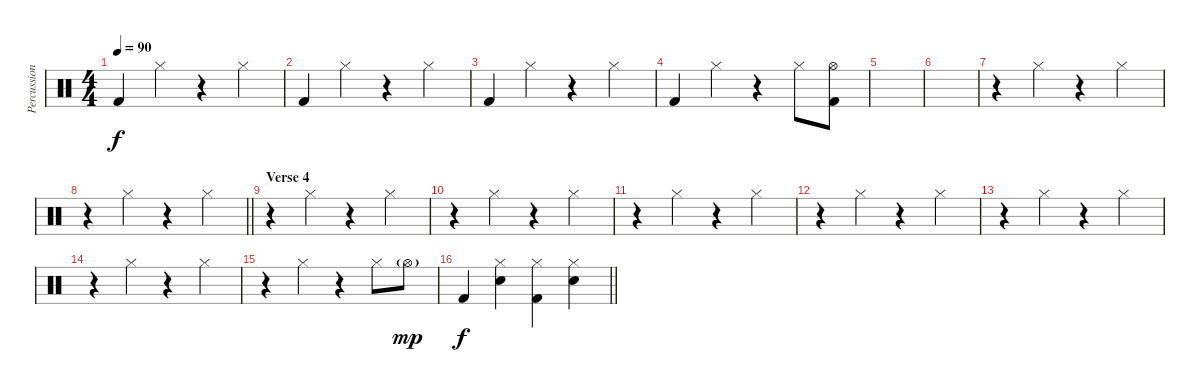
\track ("Percussion" "Percussion") {instrument percussion}
\staff {score}
\articulation defaults
\ts (4 4)
\tempo 90
\clef neutral
\ks c "Kick (hit) 2".4{dy f volume 6} "Hi-Hat (closed)".4{volume 13}
r.4 "Hi-Hat (closed)".4 |
"Kick (hit) 2".4{volume 6} "Hi-Hat (closed)".4{volume 13} r.4 "Hi-Hat (closed)".4 |
"Kick (hit) 2".4{volume 6} "Hi-Hat (closed)".4{volume 13} r.4 "Hi-Hat (closed)".4 |
"Kick (hit) 2".4{volume 6} "Hi-Hat (closed)".4{volume 13} r.4 "Hi-Hat (closed)".8 ("Hi-Hat (open)" "Kick (hit) 2").8{volume 6} |
|
|
r.4{volume 13} "Hi-Hat (closed)".4 r.4 "Hi-Hat (closed)".4 |
\barLineRight lightlight
r.4 "Hi-Hat (closed)".4 r.4 "Hi-Hat (closed)".4 |
\section ("" "Verse 4")
r.4 "Hi-Hat (closed)".4 r.4 "Hi-Hat (closed)".4 |
r.4 "Hi-Hat (closed)".4 r.4 "Hi-Hat (closed)".4 |
r.4 "Hi-Hat (closed)".4 r.4 "Hi-Hat (closed)".4 |
r.4 "Hi-Hat (closed)".4 r.4 "Hi-Hat (closed)".4 |
r.4 "Hi-Hat (closed)".4 r.4 "Hi-Hat (closed)".4 |
r.4 "Hi-Hat (closed)".4 r.4 "Hi-Hat (closed)".4 |
r.4 "Hi-Hat (closed)".4 r.4 "Hi-Hat (closed)".8 "Hi-Hat (open)"{g}.8{dy mp} |
\barLineRight lightlight "Kick (hit) 2".4{dy f volume 6}
("Hi-Hat (closed)" "Snare (hit) 2").4 ("Hi-Hat (closed)" "Kick (hit) 2").4 ("Hi-Hat (closed)" "Snare (hit) 2").4
